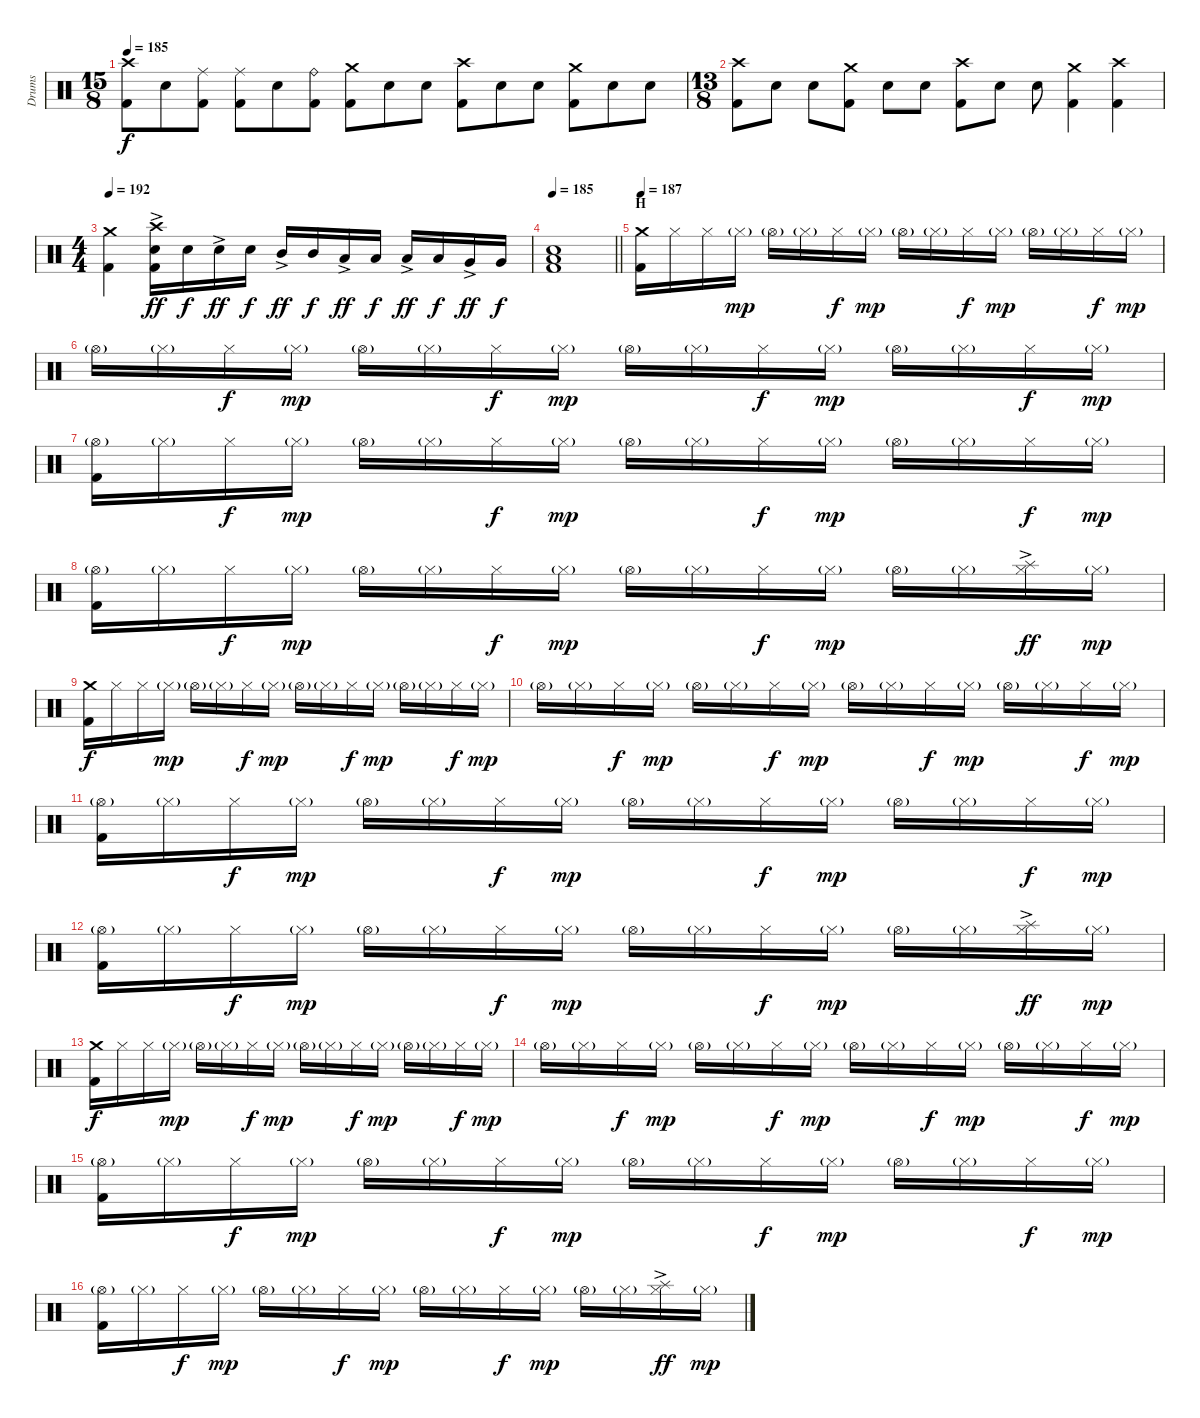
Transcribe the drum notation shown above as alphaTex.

\track ("Drums" "Drums") {instrument percussion}
\staff {score}
\articulation defaults
\ts (15 8)
\tempo 185
\clef neutral
\ks c
("Crash high (hit)" "Kick (hit) 2").8{dy f} "Electric Snare (hit)".8 ("Ride (middle)" "Kick (hit) 2").8 ("Ride (middle)" "Kick (hit) 2").8 "Electric Snare (hit)".8 ("Ride (bell)" "Kick (hit) 2").8 ("Crash medium (hit)" "Kick (hit) 2").8 "Electric Snare (hit)".8 "Electric Snare (hit)".8 ("Crash high (hit)" "Kick (hit) 2").8 "Electric Snare (hit)".8 "Electric Snare (hit)".8 ("Crash medium (hit)" "Kick (hit) 2").8 "Electric Snare (hit)".8 "Electric Snare (hit)".8 |
\ts (13 8)
("Crash high (hit)" "Kick (hit) 2").8 "Electric Snare (hit)".8 "Electric Snare (hit)".8 ("Crash medium (hit)" "Kick (hit) 2").8 "Electric Snare (hit)".8 "Electric Snare (hit)".8 ("Crash high (hit)" "Kick (hit) 2").8 "Electric Snare (hit)".8 "Electric Snare (hit)".8 ("Crash medium (hit)" "Kick (hit) 2").4 ("Crash high (hit)" "Kick (hit) 2").4 |
\ts (4 4)
\tempo 192
("Crash medium (hit)" "Kick (hit) 2").4 ("Crash high (hit)" "Electric Snare (hit)"{ac} "Kick (hit) 2").16{dy ff} "Electric Snare (hit)".16{dy f} "Electric Snare (hit)"{ac}.16{dy ff} "Electric Snare (hit)".16{dy f} "Mid Tom (hit)"{ac}.16{dy ff} "Mid Tom (hit)".16{dy f} "Low Tom (hit)"{ac}.16{dy ff} "Low Tom (hit)".16{dy f} "Low Tom (hit)"{ac}.16{dy ff} "Low Tom (hit)".16{dy f} "Very Low Tom (hit)"{ac}.16{dy ff} "Very Low Tom (hit)".16{dy f} |
\tempo 185
\barLineRight lightlight
("Electric Snare (hit)" "Low Floor Tom (hit)" "Kick (hit) 2").1 |
\section ("" "H")
\tempo 187
("Crash medium (hit)" "Kick (hit) 2").16 "Hi-Hat (closed)".16 "Hi-Hat (closed)".16 "Hi-Hat (closed)"{g}.16{dy mp} "Hi-Hat (open)"{g}.16 "Hi-Hat (closed)"{g}.16 "Hi-Hat (closed)".16{dy f} "Hi-Hat (closed)"{g}.16{dy mp} "Hi-Hat (open)"{g}.16 "Hi-Hat (closed)"{g}.16 "Hi-Hat (closed)".16{dy f} "Hi-Hat (closed)"{g}.16{dy mp} "Hi-Hat (open)"{g}.16 "Hi-Hat (closed)"{g}.16 "Hi-Hat (closed)".16{dy f} "Hi-Hat (closed)"{g}.16{dy mp} |
"Hi-Hat (open)"{g}.16 "Hi-Hat (closed)"{g}.16 "Hi-Hat (closed)".16{dy f} "Hi-Hat (closed)"{g}.16{dy mp} "Hi-Hat (open)"{g}.16 "Hi-Hat (closed)"{g}.16 "Hi-Hat (closed)".16{dy f} "Hi-Hat (closed)"{g}.16{dy mp} "Hi-Hat (open)"{g}.16 "Hi-Hat (closed)"{g}.16 "Hi-Hat (closed)".16{dy f} "Hi-Hat (closed)"{g}.16{dy mp} "Hi-Hat (open)"{g}.16 "Hi-Hat (closed)"{g}.16 "Hi-Hat (closed)".16{dy f} "Hi-Hat (closed)"{g}.16{dy mp} |
("Hi-Hat (open)"{g} "Kick (hit) 2").16 "Hi-Hat (closed)"{g}.16 "Hi-Hat (closed)".16{dy f} "Hi-Hat (closed)"{g}.16{dy mp} "Hi-Hat (open)"{g}.16 "Hi-Hat (closed)"{g}.16 "Hi-Hat (closed)".16{dy f} "Hi-Hat (closed)"{g}.16{dy mp} "Hi-Hat (open)"{g}.16 "Hi-Hat (closed)"{g}.16 "Hi-Hat (closed)".16{dy f} "Hi-Hat (closed)"{g}.16{dy mp} "Hi-Hat (open)"{g}.16 "Hi-Hat (closed)"{g}.16 "Hi-Hat (closed)".16{dy f} "Hi-Hat (closed)"{g}.16{dy mp} |
("Hi-Hat (open)"{g} "Kick (hit) 2").16 "Hi-Hat (closed)"{g}.16 "Hi-Hat (closed)".16{dy f} "Hi-Hat (closed)"{g}.16{dy mp} "Hi-Hat (open)"{g}.16 "Hi-Hat (closed)"{g}.16 "Hi-Hat (closed)".16{dy f} "Hi-Hat (closed)"{g}.16{dy mp} "Hi-Hat (open)"{g}.16 "Hi-Hat (closed)"{g}.16 "Hi-Hat (closed)".16{dy f} "Hi-Hat (closed)"{g}.16{dy mp} "Hi-Hat (open)"{g}.16 "Hi-Hat (closed)"{g}.16 ("Splash (hit)"{ac} "Hi-Hat (closed)").16{dy ff} "Hi-Hat (closed)"{g}.16{dy mp} |
("Crash medium (hit)" "Kick (hit) 2").16{dy f} "Hi-Hat (closed)".16 "Hi-Hat (closed)".16 "Hi-Hat (closed)"{g}.16{dy mp} "Hi-Hat (open)"{g}.16 "Hi-Hat (closed)"{g}.16 "Hi-Hat (closed)".16{dy f} "Hi-Hat (closed)"{g}.16{dy mp} "Hi-Hat (open)"{g}.16 "Hi-Hat (closed)"{g}.16 "Hi-Hat (closed)".16{dy f} "Hi-Hat (closed)"{g}.16{dy mp} "Hi-Hat (open)"{g}.16 "Hi-Hat (closed)"{g}.16 "Hi-Hat (closed)".16{dy f} "Hi-Hat (closed)"{g}.16{dy mp} |
"Hi-Hat (open)"{g}.16 "Hi-Hat (closed)"{g}.16 "Hi-Hat (closed)".16{dy f} "Hi-Hat (closed)"{g}.16{dy mp} "Hi-Hat (open)"{g}.16 "Hi-Hat (closed)"{g}.16 "Hi-Hat (closed)".16{dy f} "Hi-Hat (closed)"{g}.16{dy mp} "Hi-Hat (open)"{g}.16 "Hi-Hat (closed)"{g}.16 "Hi-Hat (closed)".16{dy f} "Hi-Hat (closed)"{g}.16{dy mp} "Hi-Hat (open)"{g}.16 "Hi-Hat (closed)"{g}.16 "Hi-Hat (closed)".16{dy f} "Hi-Hat (closed)"{g}.16{dy mp} |
("Hi-Hat (open)"{g} "Kick (hit) 2").16 "Hi-Hat (closed)"{g}.16 "Hi-Hat (closed)".16{dy f} "Hi-Hat (closed)"{g}.16{dy mp} "Hi-Hat (open)"{g}.16 "Hi-Hat (closed)"{g}.16 "Hi-Hat (closed)".16{dy f} "Hi-Hat (closed)"{g}.16{dy mp} "Hi-Hat (open)"{g}.16 "Hi-Hat (closed)"{g}.16 "Hi-Hat (closed)".16{dy f} "Hi-Hat (closed)"{g}.16{dy mp} "Hi-Hat (open)"{g}.16 "Hi-Hat (closed)"{g}.16 "Hi-Hat (closed)".16{dy f} "Hi-Hat (closed)"{g}.16{dy mp} |
("Hi-Hat (open)"{g} "Kick (hit) 2").16 "Hi-Hat (closed)"{g}.16 "Hi-Hat (closed)".16{dy f} "Hi-Hat (closed)"{g}.16{dy mp} "Hi-Hat (open)"{g}.16 "Hi-Hat (closed)"{g}.16 "Hi-Hat (closed)".16{dy f} "Hi-Hat (closed)"{g}.16{dy mp} "Hi-Hat (open)"{g}.16 "Hi-Hat (closed)"{g}.16 "Hi-Hat (closed)".16{dy f} "Hi-Hat (closed)"{g}.16{dy mp} "Hi-Hat (open)"{g}.16 "Hi-Hat (closed)"{g}.16 ("Splash (hit)"{ac} "Hi-Hat (closed)").16{dy ff} "Hi-Hat (closed)"{g}.16{dy mp} |
("Crash medium (hit)" "Kick (hit) 2").16{dy f} "Hi-Hat (closed)".16 "Hi-Hat (closed)".16 "Hi-Hat (closed)"{g}.16{dy mp} "Hi-Hat (open)"{g}.16 "Hi-Hat (closed)"{g}.16 "Hi-Hat (closed)".16{dy f} "Hi-Hat (closed)"{g}.16{dy mp} "Hi-Hat (open)"{g}.16 "Hi-Hat (closed)"{g}.16 "Hi-Hat (closed)".16{dy f} "Hi-Hat (closed)"{g}.16{dy mp} "Hi-Hat (open)"{g}.16 "Hi-Hat (closed)"{g}.16 "Hi-Hat (closed)".16{dy f} "Hi-Hat (closed)"{g}.16{dy mp} |
"Hi-Hat (open)"{g}.16 "Hi-Hat (closed)"{g}.16 "Hi-Hat (closed)".16{dy f} "Hi-Hat (closed)"{g}.16{dy mp} "Hi-Hat (open)"{g}.16 "Hi-Hat (closed)"{g}.16 "Hi-Hat (closed)".16{dy f} "Hi-Hat (closed)"{g}.16{dy mp} "Hi-Hat (open)"{g}.16 "Hi-Hat (closed)"{g}.16 "Hi-Hat (closed)".16{dy f} "Hi-Hat (closed)"{g}.16{dy mp} "Hi-Hat (open)"{g}.16 "Hi-Hat (closed)"{g}.16 "Hi-Hat (closed)".16{dy f} "Hi-Hat (closed)"{g}.16{dy mp} |
("Hi-Hat (open)"{g} "Kick (hit) 2").16 "Hi-Hat (closed)"{g}.16 "Hi-Hat (closed)".16{dy f} "Hi-Hat (closed)"{g}.16{dy mp} "Hi-Hat (open)"{g}.16 "Hi-Hat (closed)"{g}.16 "Hi-Hat (closed)".16{dy f} "Hi-Hat (closed)"{g}.16{dy mp} "Hi-Hat (open)"{g}.16 "Hi-Hat (closed)"{g}.16 "Hi-Hat (closed)".16{dy f} "Hi-Hat (closed)"{g}.16{dy mp} "Hi-Hat (open)"{g}.16 "Hi-Hat (closed)"{g}.16 "Hi-Hat (closed)".16{dy f} "Hi-Hat (closed)"{g}.16{dy mp} |
("Hi-Hat (open)"{g} "Kick (hit) 2").16 "Hi-Hat (closed)"{g}.16 "Hi-Hat (closed)".16{dy f} "Hi-Hat (closed)"{g}.16{dy mp} "Hi-Hat (open)"{g}.16 "Hi-Hat (closed)"{g}.16 "Hi-Hat (closed)".16{dy f} "Hi-Hat (closed)"{g}.16{dy mp} "Hi-Hat (open)"{g}.16 "Hi-Hat (closed)"{g}.16 "Hi-Hat (closed)".16{dy f} "Hi-Hat (closed)"{g}.16{dy mp} "Hi-Hat (open)"{g}.16 "Hi-Hat (closed)"{g}.16 ("Splash (hit)"{ac} "Hi-Hat (closed)").16{dy ff} "Hi-Hat (closed)"{g}.16{dy mp}
